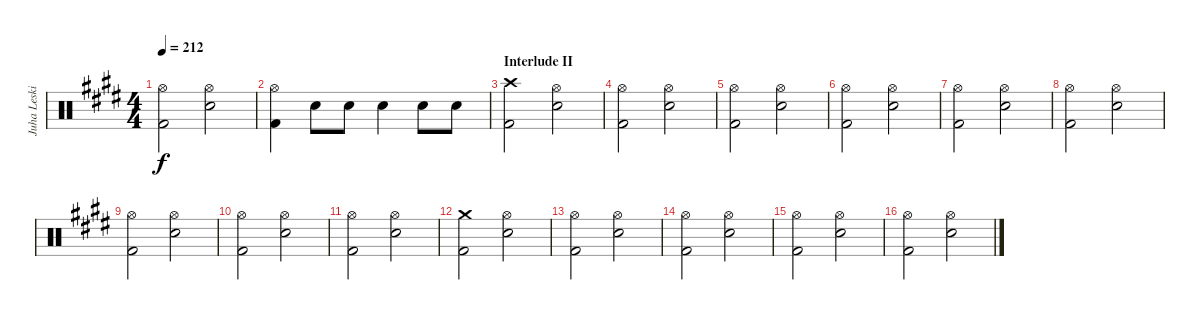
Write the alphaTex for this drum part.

\track ("Juha Leskinen - Drums" "Juha Leski") {instrument percussion}
\staff {score}
\articulation defaults
\ts (4 4)
\tempo 212
\clef neutral
\ks c#minor
("Hi-Hat (open)" "Kick (hit) 2").2{dy f} ("Hi-Hat (open)" "Electric Snare (hit)").2 |
("Hi-Hat (open)" "Kick (hit) 2").4 "Electric Snare (hit)".8 "Electric Snare (hit)".8 "Electric Snare (hit)".4 "Electric Snare (hit)".8 "Electric Snare (hit)".8 |
\section ("" "Interlude II")
("Crash high (hit)" "Kick (hit) 2").2 ("Hi-Hat (open)" "Electric Snare (hit)").2 |
("Hi-Hat (open)" "Kick (hit) 2").2 ("Hi-Hat (open)" "Electric Snare (hit)").2 |
("Hi-Hat (open)" "Kick (hit) 2").2 ("Hi-Hat (open)" "Electric Snare (hit)").2 |
("Hi-Hat (open)" "Kick (hit) 2").2 ("Hi-Hat (open)" "Electric Snare (hit)").2 |
("Hi-Hat (open)" "Kick (hit) 2").2 ("Hi-Hat (open)" "Electric Snare (hit)").2 |
("Hi-Hat (open)" "Kick (hit) 2").2 ("Hi-Hat (open)" "Electric Snare (hit)").2 |
("Hi-Hat (open)" "Kick (hit) 2").2 ("Hi-Hat (open)" "Electric Snare (hit)").2 |
("Hi-Hat (open)" "Kick (hit) 2").2 ("Hi-Hat (open)" "Electric Snare (hit)").2 |
("Hi-Hat (open)" "Kick (hit) 2").2 ("Hi-Hat (open)" "Electric Snare (hit)").2 |
("Crash medium (hit)" "Kick (hit) 2").2 ("Hi-Hat (open)" "Electric Snare (hit)").2 |
("Hi-Hat (open)" "Kick (hit) 2").2 ("Hi-Hat (open)" "Electric Snare (hit)").2 |
("Hi-Hat (open)" "Kick (hit) 2").2 ("Hi-Hat (open)" "Electric Snare (hit)").2 |
("Hi-Hat (open)" "Kick (hit) 2").2 ("Hi-Hat (open)" "Electric Snare (hit)").2 |
("Hi-Hat (open)" "Kick (hit) 2").2 ("Hi-Hat (open)" "Electric Snare (hit)").2
